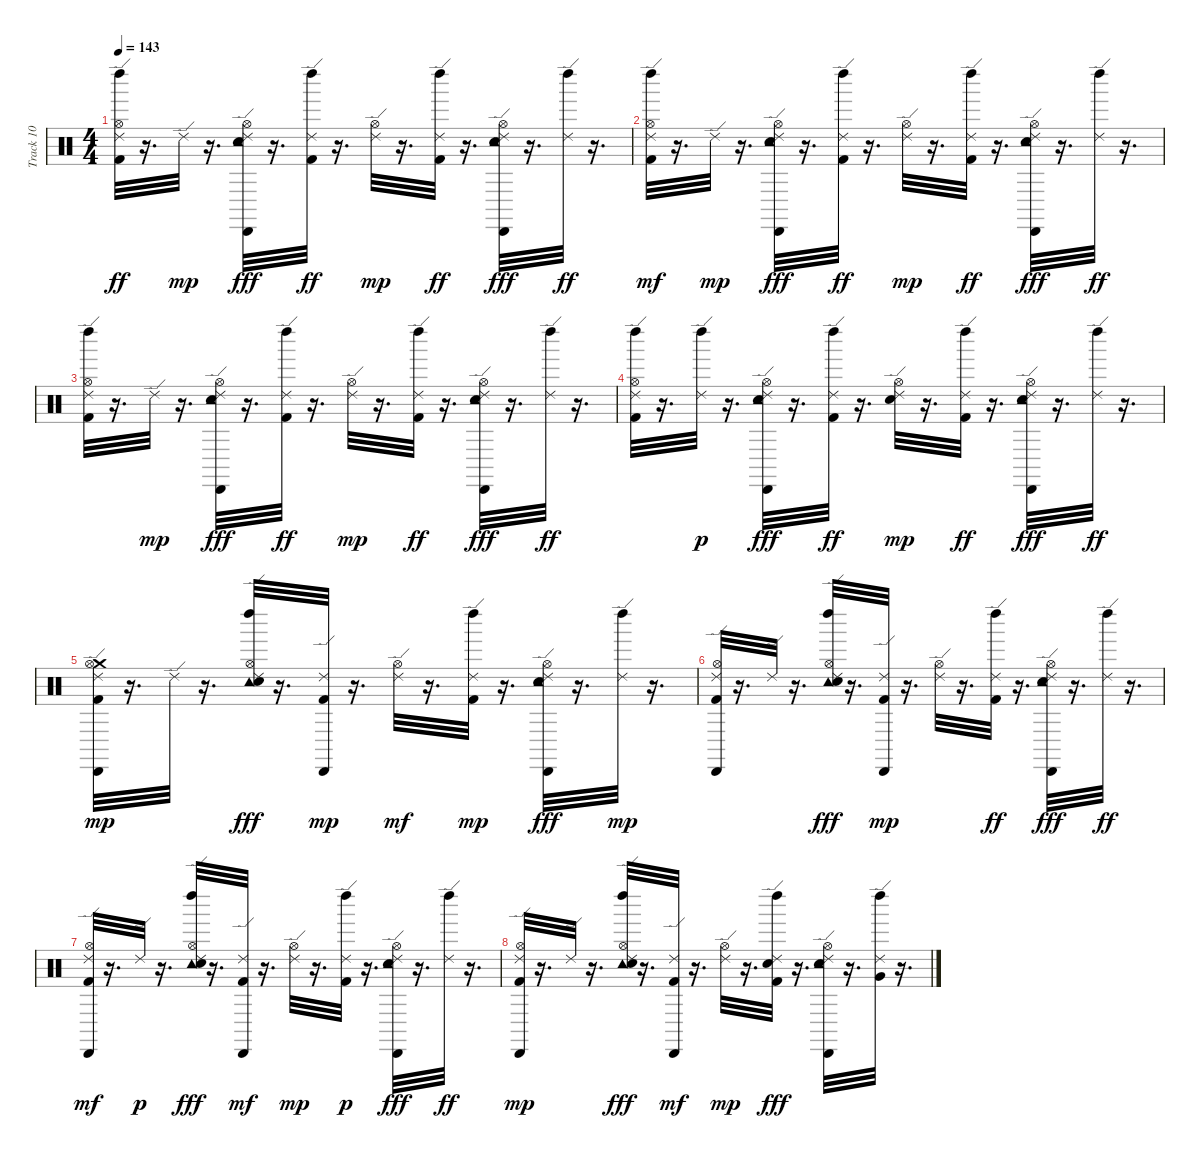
\track ("Track 10" "Track 10") {instrument percussion}
\staff {score}
\articulation defaults
\ts (4 4)
\tempo 143
\clef neutral
\ks c
("Kick (hit) 2" "Ride (edge) 2" "Hi-Hat (open)" "Left Maraca (hit)").32{dy ff} r.16{d} "Ride (edge) 2".32{dy mp} r.16{d} ("Snare (hit) 2" "Hi-Hat (open)" "Ride (edge) 2" "Cabasa (hit)" "Tambourine (hit)").32{dy fff} r.16{d} ("Kick (hit) 2" "Ride (edge) 2" "Left Maraca (hit)").32{dy ff} r.16{d} ("Hi-Hat (open)" "Ride (edge) 2").32{dy mp} r.16{d} ("Kick (hit) 2" "Ride (edge) 2" "Left Maraca (hit)").32{dy ff} r.16{d} ("Snare (hit) 2" "Ride (edge) 2" "Hi-Hat (open)" "Cabasa (hit)" "Tambourine (hit)").32{dy fff} r.16{d} ("Ride (edge) 2" "Left Maraca (hit)").32{dy ff} r.16{d} |
("Kick (hit) 2" "Ride (edge) 2" "Hi-Hat (open)" "Left Maraca (hit)").32{dy mf} r.16{d} "Ride (edge) 2".32{dy mp} r.16{d} ("Snare (hit) 2" "Hi-Hat (open)" "Ride (edge) 2" "Cabasa (hit)" "Tambourine (hit)").32{dy fff} r.16{d} ("Kick (hit) 2" "Ride (edge) 2" "Left Maraca (hit)").32{dy ff} r.16{d} ("Hi-Hat (open)" "Ride (edge) 2").32{dy mp} r.16{d} ("Kick (hit) 2" "Ride (edge) 2" "Left Maraca (hit)").32{dy ff} r.16{d} ("Snare (hit) 2" "Ride (edge) 2" "Hi-Hat (open)" "Cabasa (hit)" "Tambourine (hit)").32{dy fff} r.16{d} ("Ride (edge) 2" "Left Maraca (hit)").32{dy ff} r.16{d} |
("Kick (hit) 2" "Ride (edge) 2" "Hi-Hat (open)" "Left Maraca (hit)").32 r.16{d} "Ride (edge) 2".32{dy mp} r.16{d} ("Snare (hit) 2" "Hi-Hat (open)" "Ride (edge) 2" "Cabasa (hit)" "Tambourine (hit)").32{dy fff} r.16{d} ("Kick (hit) 2" "Ride (edge) 2" "Left Maraca (hit)").32{dy ff} r.16{d} ("Hi-Hat (open)" "Ride (edge) 2").32{dy mp} r.16{d} ("Kick (hit) 2" "Ride (edge) 2" "Left Maraca (hit)").32{dy ff} r.16{d} ("Snare (hit) 2" "Ride (edge) 2" "Hi-Hat (open)" "Cabasa (hit)" "Tambourine (hit)").32{dy fff} r.16{d} ("Ride (edge) 2" "Left Maraca (hit)").32{dy ff} r.16{d} |
("Kick (hit) 2" "Ride (edge) 2" "Hi-Hat (open)" "Left Maraca (hit)").32 r.16{d} ("Ride (edge) 2" "Left Maraca (hit)").32{dy p} r.16{d} ("Snare (hit) 2" "Hi-Hat (open)" "Ride (edge) 2" "Cabasa (hit)" "Tambourine (hit)").32{dy fff} r.16{d} ("Kick (hit) 2" "Ride (edge) 2" "Left Maraca (hit)").32{dy ff} r.16{d} ("Snare (hit) 2" "Hi-Hat (open)" "Ride (edge) 2").32{dy mp} r.16{d} ("Kick (hit) 2" "Ride (edge) 2" "Left Maraca (hit)").32{dy ff} r.16{d} ("Snare (hit) 2" "Ride (edge) 2" "Hi-Hat (open)" "Cabasa (hit)" "Tambourine (hit)").32{dy fff} r.16{d} ("Ride (edge) 2" "Left Maraca (hit)").32{dy ff} r.16{d} |
("Kick (hit) 2" "Crash medium (hit)" "Ride (edge) 2" "Cabasa (hit)" "Hi-Hat (open)").32{dy mp} r.16{d} "Ride (edge) 2".32 r.16{d} ("Ride (edge) 2" "Tambourine (hit)" "Left Maraca (hit)" "Hi-Hat (open)" "Snare (hit) 2").32{dy fff} r.16{d} ("Kick (hit) 2" "Ride (edge) 2" "Cabasa (hit)").32{dy mp} r.16{d} ("Ride (edge) 2" "Hi-Hat (open)").32{dy mf} r.16{d} ("Kick (hit) 2" "Ride (edge) 2" "Left Maraca (hit)").32{dy mp} r.16{d} ("Ride (edge) 2" "Tambourine (hit)" "Cabasa (hit)" "Hi-Hat (open)" "Snare (hit) 2").32{dy fff} r.16{d} ("Ride (edge) 2" "Left Maraca (hit)").32{dy mp} r.16{d} |
("Kick (hit) 2" "Ride (edge) 2" "Cabasa (hit)" "Hi-Hat (open)").32 r.16{d} "Ride (edge) 2".32 r.16{d} ("Ride (edge) 2" "Tambourine (hit)" "Left Maraca (hit)" "Hi-Hat (open)" "Snare (hit) 2").32{dy fff} r.16{d} ("Kick (hit) 2" "Ride (edge) 2" "Cabasa (hit)").32{dy mp} r.16{d} ("Ride (edge) 2" "Hi-Hat (open)").32 r.16{d} ("Kick (hit) 2" "Ride (edge) 2" "Left Maraca (hit)").32{dy ff} r.16{d} ("Ride (edge) 2" "Tambourine (hit)" "Cabasa (hit)" "Hi-Hat (open)" "Snare (hit) 2").32{dy fff} r.16{d} ("Ride (edge) 2" "Left Maraca (hit)").32{dy ff} r.16{d} |
("Kick (hit) 2" "Ride (edge) 2" "Cabasa (hit)" "Hi-Hat (open)").32{dy mf} r.16{d} "Ride (edge) 2".32{dy p} r.16{d} ("Ride (edge) 2" "Tambourine (hit)" "Left Maraca (hit)" "Hi-Hat (open)" "Snare (hit) 2").32{dy fff} r.16{d} ("Kick (hit) 2" "Ride (edge) 2" "Cabasa (hit)").32{dy mf} r.16{d} ("Ride (edge) 2" "Hi-Hat (open)").32{dy mp} r.16{d} ("Kick (hit) 2" "Ride (edge) 2" "Left Maraca (hit)").32{dy p} r.16{d} ("Ride (edge) 2" "Tambourine (hit)" "Cabasa (hit)" "Hi-Hat (open)" "Snare (hit) 2").32{dy fff} r.16{d} ("Ride (edge) 2" "Left Maraca (hit)").32{dy ff} r.16{d} |
("Kick (hit) 2" "Ride (edge) 2" "Cabasa (hit)" "Hi-Hat (open)").32{dy mp} r.16{d} "Ride (edge) 2".32 r.16{d} ("Ride (edge) 2" "Tambourine (hit)" "Left Maraca (hit)" "Hi-Hat (open)" "Snare (hit) 2").32{dy fff} r.16{d} ("Kick (hit) 2" "Ride (edge) 2" "Cabasa (hit)").32{dy mf} r.16{d} ("Ride (edge) 2" "Hi-Hat (open)").32{dy mp} r.16{d} ("Kick (hit) 2" "Ride (edge) 2" "Left Maraca (hit)" "Snare (hit) 2").32{dy fff} r.16{d} ("Ride (edge) 2" "Tambourine (hit)" "Cabasa (hit)" "Hi-Hat (open)" "Snare (hit) 2").32 r.16{d} ("Ride (edge) 2" "Left Maraca (hit)" "Very Low Tom (hit)").32 r.16{d}
